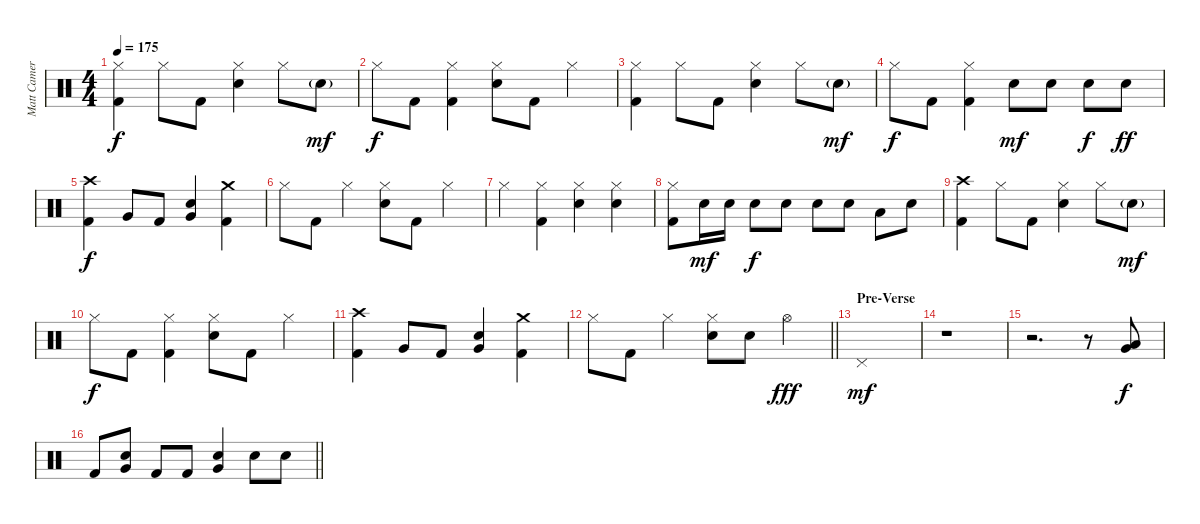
\track ("Matt Cameron Drum" "Matt Camer") {instrument percussion}
\staff {score}
\articulation defaults
\ts (4 4)
\tempo 175
\clef neutral
\ks c
("Hi-Hat (closed)" "Kick (hit) 2").4{dy f} "Hi-Hat (closed)".8 "Kick (hit) 2".8 ("Hi-Hat (closed)" "Electric Snare (hit)").4 "Hi-Hat (closed)".8 "Electric Snare (hit)"{g}.8{dy mf} |
"Hi-Hat (closed)".8{dy f} "Kick (hit) 2".8 ("Hi-Hat (closed)" "Kick (hit) 2").4 ("Hi-Hat (closed)" "Electric Snare (hit)").8 "Kick (hit) 2".8 "Hi-Hat (closed)".4 |
("Hi-Hat (closed)" "Kick (hit) 2").4 "Hi-Hat (closed)".8 "Kick (hit) 2".8 ("Hi-Hat (closed)" "Electric Snare (hit)").4 "Hi-Hat (closed)".8 "Electric Snare (hit)"{g}.8{dy mf} |
"Hi-Hat (closed)".8{dy f} "Kick (hit) 2".8 ("Hi-Hat (closed)" "Kick (hit) 2").4 "Electric Snare (hit)".8{dy mf} "Electric Snare (hit)".8 "Electric Snare (hit)".8{dy f} "Electric Snare (hit)".8{dy ff} |
("Crash high (hit)" "Kick (hit) 2").4{dy f} "Very Low Tom (hit)".8 "Kick (hit) 2".8 ("Very Low Tom (hit)" "Electric Snare (hit)").4 ("Crash medium (hit)" "Kick (hit) 2").4 |
"Hi-Hat (closed)".8 "Kick (hit) 2".8 "Hi-Hat (closed)".4 ("Hi-Hat (closed)" "Electric Snare (hit)").8 "Kick (hit) 2".8 "Hi-Hat (closed)".4 |
"Hi-Hat (closed)".4 ("Hi-Hat (closed)" "Kick (hit) 2").4 ("Hi-Hat (closed)" "Electric Snare (hit)").4 ("Hi-Hat (closed)" "Electric Snare (hit)").4 |
("Hi-Hat (closed)" "Kick (hit) 2").8 "Electric Snare (hit)".16{dy mf} "Electric Snare (hit)".16 "Electric Snare (hit)".8{dy f} "Electric Snare (hit)".8 "Electric Snare (hit)".8 "Electric Snare (hit)".8 "Low Tom (hit)".8 "Electric Snare (hit)".8 |
("Crash high (hit)" "Kick (hit) 2").4 "Hi-Hat (closed)".8 "Kick (hit) 2".8 ("Hi-Hat (closed)" "Electric Snare (hit)").4 "Hi-Hat (closed)".8 "Electric Snare (hit)"{g}.8{dy mf} |
"Hi-Hat (closed)".8{dy f} "Kick (hit) 2".8 ("Hi-Hat (closed)" "Kick (hit) 2").4 ("Hi-Hat (closed)" "Electric Snare (hit)").8 "Kick (hit) 2".8 "Hi-Hat (closed)".4 |
("Crash high (hit)" "Kick (hit) 2").4 "Very Low Tom (hit)".8 "Kick (hit) 2".8 ("Very Low Tom (hit)" "Electric Snare (hit)").4 ("Crash medium (hit)" "Kick (hit) 2").4 |
\barLineRight lightlight "Hi-Hat (closed)".8 "Kick (hit) 2".8 "Hi-Hat (closed)".4
("Hi-Hat (closed)" "Electric Snare (hit)").8 "Electric Snare (hit)".8 "Hi-Hat (open)".4{dy fff} |
\section ("" "Pre-Verse")
"Pedal Hi-Hat (hit)".1{dy mf} |
r.1 |
r.2{d} r.8 ("Low Tom (hit)" "Very Low Tom (hit)").8{dy f} |
\barLineRight lightlight "Kick (hit) 2".8
("Very Low Tom (hit)" "Electric Snare (hit)").8 "Kick (hit) 2".8 "Kick (hit) 2".8 ("Very Low Tom (hit)" "Electric Snare (hit)").4 "Electric Snare (hit)".8 "Electric Snare (hit)".8
